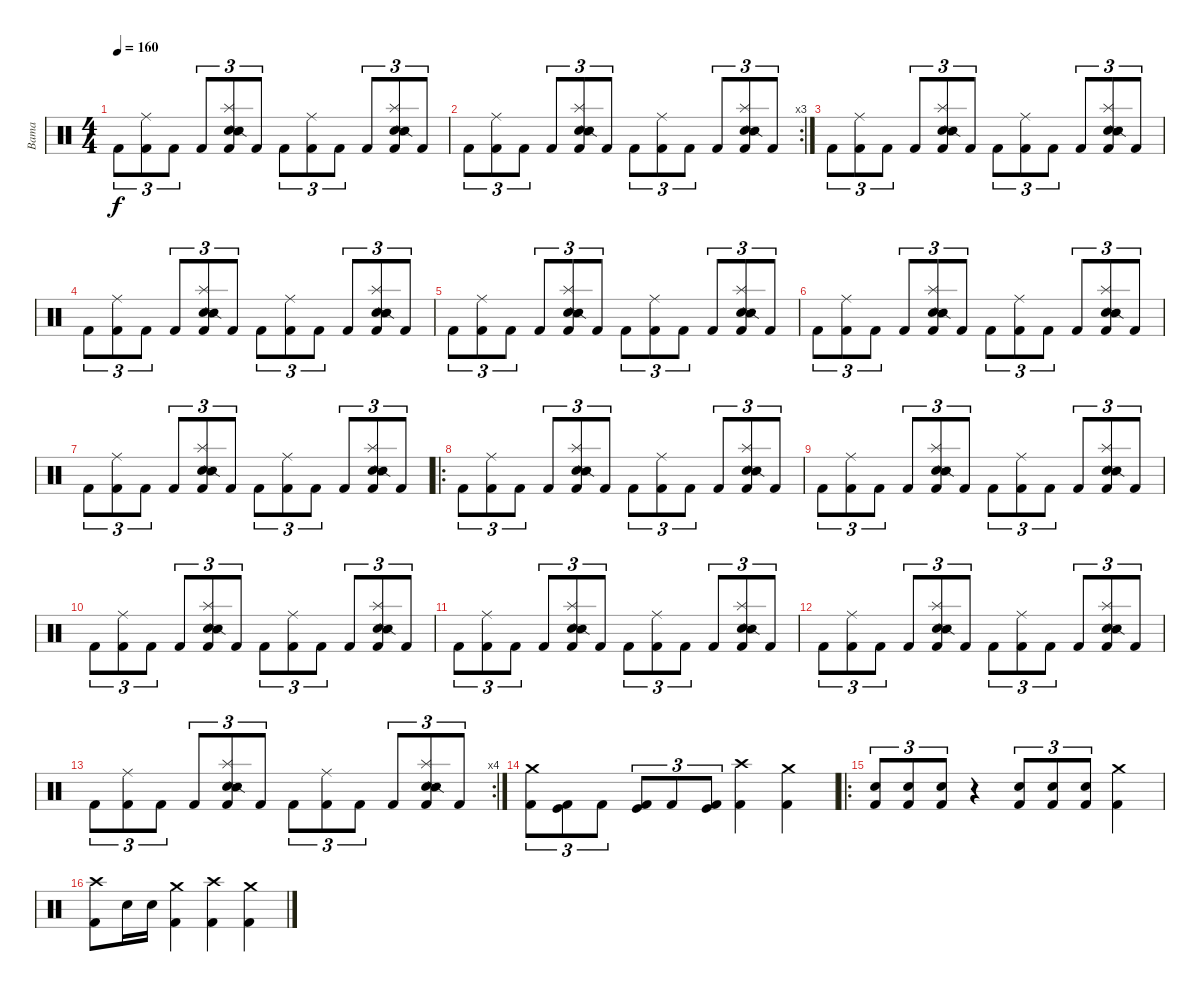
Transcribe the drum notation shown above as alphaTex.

\track ("Bama" "Bama") {instrument percussion}
\staff {score}
\articulation defaults
\ts (4 4)
\tempo 160
\clef neutral
\ks c "Kick (hit) 2".8{tu (3 2) dy f}
("Ride (middle)" "Kick (hit) 2").8{tu (3 2)} "Kick (hit) 2".8{tu (3 2)} "Kick (hit) 2".8{tu (3 2)} ("Splash (hit)" "Electric Snare (hit)" "Snare (side stick) 2" "Kick (hit) 2").8{tu (3 2)} "Kick (hit) 2".8{tu (3 2)} "Kick (hit) 2".8{tu (3 2)} ("Ride (middle)" "Kick (hit) 2").8{tu (3 2)} "Kick (hit) 2".8{tu (3 2)} "Kick (hit) 2".8{tu (3 2)} ("Splash (hit)" "Electric Snare (hit)" "Snare (side stick) 2" "Kick (hit) 2").8{tu (3 2)} "Kick (hit) 2".8{tu (3 2)} |
\rc 3 "Kick (hit) 2".8{tu (3 2)}
("Ride (middle)" "Kick (hit) 2").8{tu (3 2)} "Kick (hit) 2".8{tu (3 2)} "Kick (hit) 2".8{tu (3 2)} ("Splash (hit)" "Electric Snare (hit)" "Snare (side stick) 2" "Kick (hit) 2").8{tu (3 2)} "Kick (hit) 2".8{tu (3 2)} "Kick (hit) 2".8{tu (3 2)} ("Ride (middle)" "Kick (hit) 2").8{tu (3 2)} "Kick (hit) 2".8{tu (3 2)} "Kick (hit) 2".8{tu (3 2)} ("Splash (hit)" "Electric Snare (hit)" "Snare (side stick) 2" "Kick (hit) 2").8{tu (3 2)} "Kick (hit) 2".8{tu (3 2)} |
"Kick (hit) 2".8{tu (3 2)} ("Ride (middle)" "Kick (hit) 2").8{tu (3 2)} "Kick (hit) 2".8{tu (3 2)} "Kick (hit) 2".8{tu (3 2)} ("Splash (hit)" "Electric Snare (hit)" "Snare (side stick) 2" "Kick (hit) 2").8{tu (3 2)} "Kick (hit) 2".8{tu (3 2)} "Kick (hit) 2".8{tu (3 2)} ("Ride (middle)" "Kick (hit) 2").8{tu (3 2)} "Kick (hit) 2".8{tu (3 2)} "Kick (hit) 2".8{tu (3 2)} ("Splash (hit)" "Electric Snare (hit)" "Snare (side stick) 2" "Kick (hit) 2").8{tu (3 2)} "Kick (hit) 2".8{tu (3 2)} |
"Kick (hit) 2".8{tu (3 2)} ("Ride (middle)" "Kick (hit) 2").8{tu (3 2)} "Kick (hit) 2".8{tu (3 2)} "Kick (hit) 2".8{tu (3 2)} ("Splash (hit)" "Electric Snare (hit)" "Snare (side stick) 2" "Kick (hit) 2").8{tu (3 2)} "Kick (hit) 2".8{tu (3 2)} "Kick (hit) 2".8{tu (3 2)} ("Ride (middle)" "Kick (hit) 2").8{tu (3 2)} "Kick (hit) 2".8{tu (3 2)} "Kick (hit) 2".8{tu (3 2)} ("Splash (hit)" "Electric Snare (hit)" "Snare (side stick) 2" "Kick (hit) 2").8{tu (3 2)} "Kick (hit) 2".8{tu (3 2)} |
"Kick (hit) 2".8{tu (3 2)} ("Ride (middle)" "Kick (hit) 2").8{tu (3 2)} "Kick (hit) 2".8{tu (3 2)} "Kick (hit) 2".8{tu (3 2)} ("Splash (hit)" "Electric Snare (hit)" "Snare (side stick) 2" "Kick (hit) 2").8{tu (3 2)} "Kick (hit) 2".8{tu (3 2)} "Kick (hit) 2".8{tu (3 2)} ("Ride (middle)" "Kick (hit) 2").8{tu (3 2)} "Kick (hit) 2".8{tu (3 2)} "Kick (hit) 2".8{tu (3 2)} ("Splash (hit)" "Electric Snare (hit)" "Snare (side stick) 2" "Kick (hit) 2").8{tu (3 2)} "Kick (hit) 2".8{tu (3 2)} |
"Kick (hit) 2".8{tu (3 2)} ("Ride (middle)" "Kick (hit) 2").8{tu (3 2)} "Kick (hit) 2".8{tu (3 2)} "Kick (hit) 2".8{tu (3 2)} ("Splash (hit)" "Electric Snare (hit)" "Snare (side stick) 2" "Kick (hit) 2").8{tu (3 2)} "Kick (hit) 2".8{tu (3 2)} "Kick (hit) 2".8{tu (3 2)} ("Ride (middle)" "Kick (hit) 2").8{tu (3 2)} "Kick (hit) 2".8{tu (3 2)} "Kick (hit) 2".8{tu (3 2)} ("Splash (hit)" "Electric Snare (hit)" "Snare (side stick) 2" "Kick (hit) 2").8{tu (3 2)} "Kick (hit) 2".8{tu (3 2)} |
"Kick (hit) 2".8{tu (3 2)} ("Ride (middle)" "Kick (hit) 2").8{tu (3 2)} "Kick (hit) 2".8{tu (3 2)} "Kick (hit) 2".8{tu (3 2)} ("Splash (hit)" "Electric Snare (hit)" "Snare (side stick) 2" "Kick (hit) 2").8{tu (3 2)} "Kick (hit) 2".8{tu (3 2)} "Kick (hit) 2".8{tu (3 2)} ("Ride (middle)" "Kick (hit) 2").8{tu (3 2)} "Kick (hit) 2".8{tu (3 2)} "Kick (hit) 2".8{tu (3 2)} ("Splash (hit)" "Electric Snare (hit)" "Snare (side stick) 2" "Kick (hit) 2").8{tu (3 2)} "Kick (hit) 2".8{tu (3 2)} |
\ro "Kick (hit) 2".8{tu (3 2)}
("Ride (middle)" "Kick (hit) 2").8{tu (3 2)} "Kick (hit) 2".8{tu (3 2)} "Kick (hit) 2".8{tu (3 2)} ("Splash (hit)" "Electric Snare (hit)" "Snare (side stick) 2" "Kick (hit) 2").8{tu (3 2)} "Kick (hit) 2".8{tu (3 2)} "Kick (hit) 2".8{tu (3 2)} ("Ride (middle)" "Kick (hit) 2").8{tu (3 2)} "Kick (hit) 2".8{tu (3 2)} "Kick (hit) 2".8{tu (3 2)} ("Splash (hit)" "Electric Snare (hit)" "Snare (side stick) 2" "Kick (hit) 2").8{tu (3 2)} "Kick (hit) 2".8{tu (3 2)} |
"Kick (hit) 2".8{tu (3 2)} ("Ride (middle)" "Kick (hit) 2").8{tu (3 2)} "Kick (hit) 2".8{tu (3 2)} "Kick (hit) 2".8{tu (3 2)} ("Splash (hit)" "Electric Snare (hit)" "Snare (side stick) 2" "Kick (hit) 2").8{tu (3 2)} "Kick (hit) 2".8{tu (3 2)} "Kick (hit) 2".8{tu (3 2)} ("Ride (middle)" "Kick (hit) 2").8{tu (3 2)} "Kick (hit) 2".8{tu (3 2)} "Kick (hit) 2".8{tu (3 2)} ("Splash (hit)" "Electric Snare (hit)" "Snare (side stick) 2" "Kick (hit) 2").8{tu (3 2)} "Kick (hit) 2".8{tu (3 2)} |
"Kick (hit) 2".8{tu (3 2)} ("Ride (middle)" "Kick (hit) 2").8{tu (3 2)} "Kick (hit) 2".8{tu (3 2)} "Kick (hit) 2".8{tu (3 2)} ("Splash (hit)" "Electric Snare (hit)" "Snare (side stick) 2" "Kick (hit) 2").8{tu (3 2)} "Kick (hit) 2".8{tu (3 2)} "Kick (hit) 2".8{tu (3 2)} ("Ride (middle)" "Kick (hit) 2").8{tu (3 2)} "Kick (hit) 2".8{tu (3 2)} "Kick (hit) 2".8{tu (3 2)} ("Splash (hit)" "Electric Snare (hit)" "Snare (side stick) 2" "Kick (hit) 2").8{tu (3 2)} "Kick (hit) 2".8{tu (3 2)} |
"Kick (hit) 2".8{tu (3 2)} ("Ride (middle)" "Kick (hit) 2").8{tu (3 2)} "Kick (hit) 2".8{tu (3 2)} "Kick (hit) 2".8{tu (3 2)} ("Splash (hit)" "Electric Snare (hit)" "Snare (side stick) 2" "Kick (hit) 2").8{tu (3 2)} "Kick (hit) 2".8{tu (3 2)} "Kick (hit) 2".8{tu (3 2)} ("Ride (middle)" "Kick (hit) 2").8{tu (3 2)} "Kick (hit) 2".8{tu (3 2)} "Kick (hit) 2".8{tu (3 2)} ("Splash (hit)" "Electric Snare (hit)" "Snare (side stick) 2" "Kick (hit) 2").8{tu (3 2)} "Kick (hit) 2".8{tu (3 2)} |
"Kick (hit) 2".8{tu (3 2)} ("Ride (middle)" "Kick (hit) 2").8{tu (3 2)} "Kick (hit) 2".8{tu (3 2)} "Kick (hit) 2".8{tu (3 2)} ("Splash (hit)" "Electric Snare (hit)" "Snare (side stick) 2" "Kick (hit) 2").8{tu (3 2)} "Kick (hit) 2".8{tu (3 2)} "Kick (hit) 2".8{tu (3 2)} ("Ride (middle)" "Kick (hit) 2").8{tu (3 2)} "Kick (hit) 2".8{tu (3 2)} "Kick (hit) 2".8{tu (3 2)} ("Splash (hit)" "Electric Snare (hit)" "Snare (side stick) 2" "Kick (hit) 2").8{tu (3 2)} "Kick (hit) 2".8{tu (3 2)} |
\rc 4 "Kick (hit) 2".8{tu (3 2)}
("Ride (middle)" "Kick (hit) 2").8{tu (3 2)} "Kick (hit) 2".8{tu (3 2)} "Kick (hit) 2".8{tu (3 2)} ("Splash (hit)" "Electric Snare (hit)" "Snare (side stick) 2" "Kick (hit) 2").8{tu (3 2)} "Kick (hit) 2".8{tu (3 2)} "Kick (hit) 2".8{tu (3 2)} ("Ride (middle)" "Kick (hit) 2").8{tu (3 2)} "Kick (hit) 2".8{tu (3 2)} "Kick (hit) 2".8{tu (3 2)} ("Splash (hit)" "Electric Snare (hit)" "Snare (side stick) 2" "Kick (hit) 2").8{tu (3 2)} "Kick (hit) 2".8{tu (3 2)} |
("Crash medium (hit)" "Kick (hit) 2").8{tu (3 2)} ("Kick (hit)" "Kick (hit) 2").8{tu (3 2)} "Kick (hit) 2".8{tu (3 2)} ("Kick (hit)" "Kick (hit) 2").8{tu (3 2)} "Kick (hit) 2".8{tu (3 2)} ("Kick (hit)" "Kick (hit) 2").8{tu (3 2)} ("Crash high (hit)" "Kick (hit) 2").4 ("Crash medium (hit)" "Kick (hit) 2").4 |
\ro
("Electric Snare (hit)" "Kick (hit) 2").8{tu (3 2)} ("Electric Snare (hit)" "Kick (hit) 2").8{tu (3 2)} ("Electric Snare (hit)" "Kick (hit) 2").8{tu (3 2)} r.4 ("Electric Snare (hit)" "Kick (hit) 2").8{tu (3 2)} ("Electric Snare (hit)" "Kick (hit) 2").8{tu (3 2)} ("Electric Snare (hit)" "Kick (hit) 2").8{tu (3 2)} ("Crash medium (hit)" "Kick (hit) 2").4 |
("Crash high (hit)" "Kick (hit) 2").8 "Electric Snare (hit)".16 "Electric Snare (hit)".16 ("Crash medium (hit)" "Kick (hit) 2").4 ("Crash high (hit)" "Kick (hit) 2").4 ("Crash medium (hit)" "Kick (hit) 2").4
